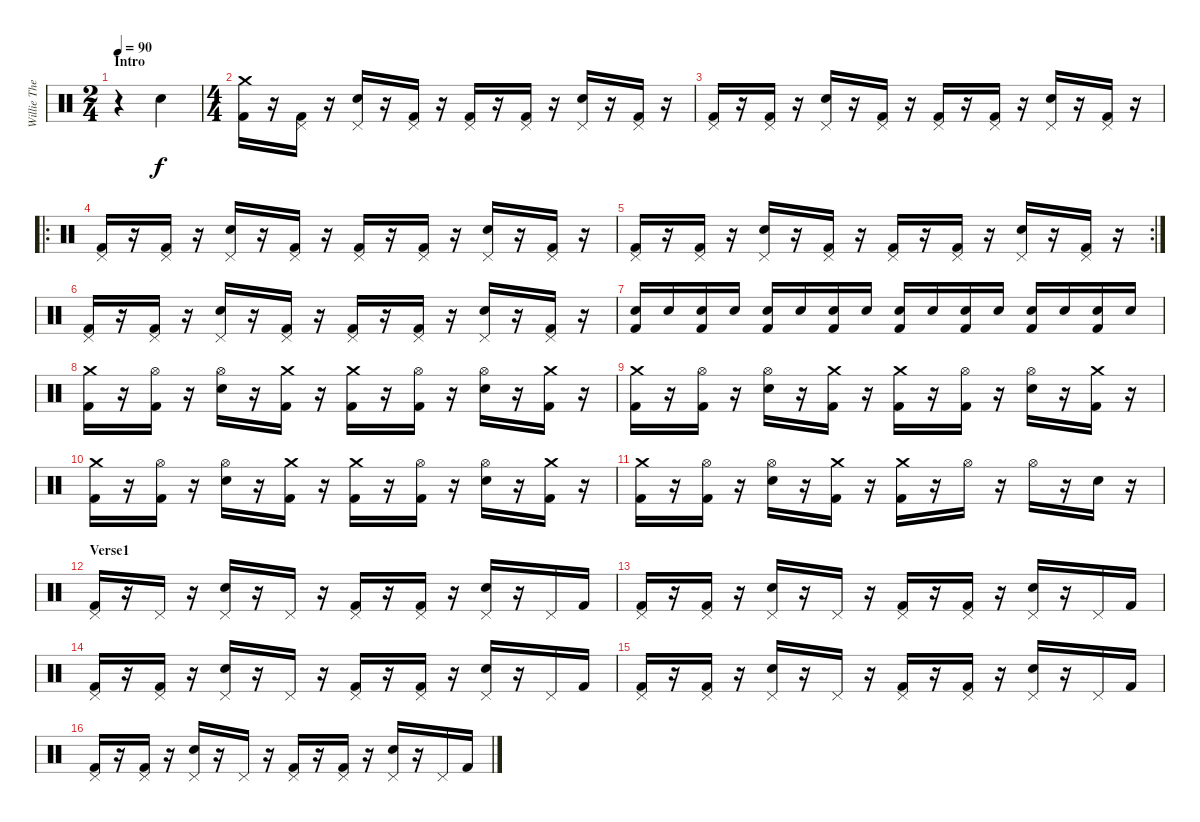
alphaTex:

\track ("Willie The New Guy" "Willie The") {instrument percussion}
\staff {score}
\articulation defaults
\ts (2 4)
\section ("" "Intro")
\tempo 90
\clef neutral
\ks c
r.4{dy f} "Electric Snare (hit)".4 |
\ts (4 4)
("Crash medium (hit)" "Kick (hit) 2").16 r.16 ("Pedal Hi-Hat (hit)" "Kick (hit) 2").16 r.16 ("Pedal Hi-Hat (hit)" "Snare (hit) 2").16 r.16 ("Pedal Hi-Hat (hit)" "Kick (hit) 2").16 r.16 ("Pedal Hi-Hat (hit)" "Kick (hit) 2").16 r.16 ("Pedal Hi-Hat (hit)" "Kick (hit) 2").16 r.16 ("Pedal Hi-Hat (hit)" "Snare (hit) 2").16 r.16 ("Pedal Hi-Hat (hit)" "Kick (hit) 2").16 r.16 |
("Pedal Hi-Hat (hit)" "Kick (hit) 2").16 r.16 ("Pedal Hi-Hat (hit)" "Kick (hit) 2").16 r.16 ("Pedal Hi-Hat (hit)" "Snare (hit) 2").16 r.16 ("Pedal Hi-Hat (hit)" "Kick (hit) 2").16 r.16 ("Pedal Hi-Hat (hit)" "Kick (hit) 2").16 r.16 ("Pedal Hi-Hat (hit)" "Kick (hit) 2").16 r.16 ("Pedal Hi-Hat (hit)" "Snare (hit) 2").16 r.16 ("Pedal Hi-Hat (hit)" "Kick (hit) 2").16 r.16 |
\ro
("Pedal Hi-Hat (hit)" "Kick (hit) 2").16 r.16 ("Pedal Hi-Hat (hit)" "Kick (hit) 2").16 r.16 ("Pedal Hi-Hat (hit)" "Snare (hit) 2").16 r.16 ("Pedal Hi-Hat (hit)" "Kick (hit) 2").16 r.16 ("Pedal Hi-Hat (hit)" "Kick (hit) 2").16 r.16 ("Pedal Hi-Hat (hit)" "Kick (hit) 2").16 r.16 ("Pedal Hi-Hat (hit)" "Snare (hit) 2").16 r.16 ("Pedal Hi-Hat (hit)" "Kick (hit) 2").16 r.16 |
\rc 2
("Pedal Hi-Hat (hit)" "Kick (hit) 2").16 r.16 ("Pedal Hi-Hat (hit)" "Kick (hit) 2").16 r.16 ("Pedal Hi-Hat (hit)" "Snare (hit) 2").16 r.16 ("Pedal Hi-Hat (hit)" "Kick (hit) 2").16 r.16 ("Pedal Hi-Hat (hit)" "Kick (hit) 2").16 r.16 ("Pedal Hi-Hat (hit)" "Kick (hit) 2").16 r.16 ("Pedal Hi-Hat (hit)" "Snare (hit) 2").16 r.16 ("Pedal Hi-Hat (hit)" "Kick (hit) 2").16 r.16 |
("Pedal Hi-Hat (hit)" "Kick (hit) 2").16 r.16 ("Pedal Hi-Hat (hit)" "Kick (hit) 2").16 r.16 ("Pedal Hi-Hat (hit)" "Snare (hit) 2").16 r.16 ("Pedal Hi-Hat (hit)" "Kick (hit) 2").16 r.16 ("Pedal Hi-Hat (hit)" "Kick (hit) 2").16 r.16 ("Pedal Hi-Hat (hit)" "Kick (hit) 2").16 r.16 ("Pedal Hi-Hat (hit)" "Snare (hit) 2").16 r.16 ("Pedal Hi-Hat (hit)" "Kick (hit) 2").16 r.16 |
("Snare (hit) 2" "Kick (hit) 2").16 "Snare (hit) 2".16 ("Snare (hit) 2" "Kick (hit) 2").16 "Snare (hit) 2".16 ("Snare (hit) 2" "Kick (hit) 2").16 "Snare (hit) 2".16 ("Snare (hit) 2" "Kick (hit) 2").16 "Snare (hit) 2".16 ("Snare (hit) 2" "Kick (hit) 2").16 "Snare (hit) 2".16 ("Snare (hit) 2" "Kick (hit) 2").16 "Snare (hit) 2".16 ("Snare (hit) 2" "Kick (hit) 2").16 "Snare (hit) 2".16 ("Snare (hit) 2" "Kick (hit) 2").16 "Snare (hit) 2".16 |
("Crash medium (hit)" "Kick (hit) 2").16 r.16 ("Hi-Hat (open)" "Kick (hit) 2").16 r.16 ("Hi-Hat (open)" "Snare (hit) 2").16 r.16 ("Crash medium (hit)" "Kick (hit) 2").16 r.16 ("Crash medium (hit)" "Kick (hit) 2").16 r.16 ("Hi-Hat (open)" "Kick (hit) 2").16 r.16 ("Hi-Hat (open)" "Snare (hit) 2").16 r.16 ("Crash medium (hit)" "Kick (hit) 2").16 r.16 |
("Crash medium (hit)" "Kick (hit) 2").16 r.16 ("Hi-Hat (open)" "Kick (hit) 2").16 r.16 ("Hi-Hat (open)" "Snare (hit) 2").16 r.16 ("Crash medium (hit)" "Kick (hit) 2").16 r.16 ("Crash medium (hit)" "Kick (hit) 2").16 r.16 ("Hi-Hat (open)" "Kick (hit) 2").16 r.16 ("Hi-Hat (open)" "Snare (hit) 2").16 r.16 ("Crash medium (hit)" "Kick (hit) 2").16 r.16 |
("Crash medium (hit)" "Kick (hit) 2").16 r.16 ("Hi-Hat (open)" "Kick (hit) 2").16 r.16 ("Hi-Hat (open)" "Snare (hit) 2").16 r.16 ("Crash medium (hit)" "Kick (hit) 2").16 r.16 ("Crash medium (hit)" "Kick (hit) 2").16 r.16 ("Hi-Hat (open)" "Kick (hit) 2").16 r.16 ("Hi-Hat (open)" "Snare (hit) 2").16 r.16 ("Crash medium (hit)" "Kick (hit) 2").16 r.16 |
("Crash medium (hit)" "Kick (hit) 2").16 r.16 ("Hi-Hat (open)" "Kick (hit) 2").16 r.16 ("Hi-Hat (open)" "Snare (hit) 2").16 r.16 ("Crash medium (hit)" "Kick (hit) 2").16 r.16 ("Crash medium (hit)" "Kick (hit) 2").16 r.16 "Hi-Hat (open)".16 r.16 "Hi-Hat (open)".16 r.16 "Electric Snare (hit)".16 r.16 |
\section ("" "Verse1")
("Pedal Hi-Hat (hit)" "Kick (hit) 2").16 r.16 "Pedal Hi-Hat (hit)".16 r.16 ("Pedal Hi-Hat (hit)" "Snare (hit) 2").16 r.16 "Pedal Hi-Hat (hit)".16 r.16 ("Pedal Hi-Hat (hit)" "Kick (hit) 2").16 r.16 ("Pedal Hi-Hat (hit)" "Kick (hit) 2").16 r.16 ("Pedal Hi-Hat (hit)" "Snare (hit) 2").16 r.16 "Pedal Hi-Hat (hit)".16 "Kick (hit) 2".16 |
("Pedal Hi-Hat (hit)" "Kick (hit) 2").16 r.16 ("Pedal Hi-Hat (hit)" "Kick (hit) 2").16 r.16 ("Pedal Hi-Hat (hit)" "Snare (hit) 2").16 r.16 "Pedal Hi-Hat (hit)".16 r.16 ("Pedal Hi-Hat (hit)" "Kick (hit) 2").16 r.16 ("Pedal Hi-Hat (hit)" "Kick (hit) 2").16 r.16 ("Pedal Hi-Hat (hit)" "Snare (hit) 2").16 r.16 "Pedal Hi-Hat (hit)".16 "Kick (hit) 2".16 |
("Pedal Hi-Hat (hit)" "Kick (hit) 2").16 r.16 ("Pedal Hi-Hat (hit)" "Kick (hit) 2").16 r.16 ("Pedal Hi-Hat (hit)" "Snare (hit) 2").16 r.16 "Pedal Hi-Hat (hit)".16 r.16 ("Pedal Hi-Hat (hit)" "Kick (hit) 2").16 r.16 ("Pedal Hi-Hat (hit)" "Kick (hit) 2").16 r.16 ("Pedal Hi-Hat (hit)" "Snare (hit) 2").16 r.16 "Pedal Hi-Hat (hit)".16 "Kick (hit) 2".16 |
("Pedal Hi-Hat (hit)" "Kick (hit) 2").16 r.16 ("Pedal Hi-Hat (hit)" "Kick (hit) 2").16 r.16 ("Pedal Hi-Hat (hit)" "Snare (hit) 2").16 r.16 "Pedal Hi-Hat (hit)".16 r.16 ("Pedal Hi-Hat (hit)" "Kick (hit) 2").16 r.16 ("Pedal Hi-Hat (hit)" "Kick (hit) 2").16 r.16 ("Pedal Hi-Hat (hit)" "Snare (hit) 2").16 r.16 "Pedal Hi-Hat (hit)".16 "Kick (hit) 2".16 |
("Pedal Hi-Hat (hit)" "Kick (hit) 2").16 r.16 ("Pedal Hi-Hat (hit)" "Kick (hit) 2").16 r.16 ("Pedal Hi-Hat (hit)" "Snare (hit) 2").16 r.16 "Pedal Hi-Hat (hit)".16 r.16 ("Pedal Hi-Hat (hit)" "Kick (hit) 2").16 r.16 ("Pedal Hi-Hat (hit)" "Kick (hit) 2").16 r.16 ("Pedal Hi-Hat (hit)" "Snare (hit) 2").16 r.16 "Pedal Hi-Hat (hit)".16 "Kick (hit) 2".16
